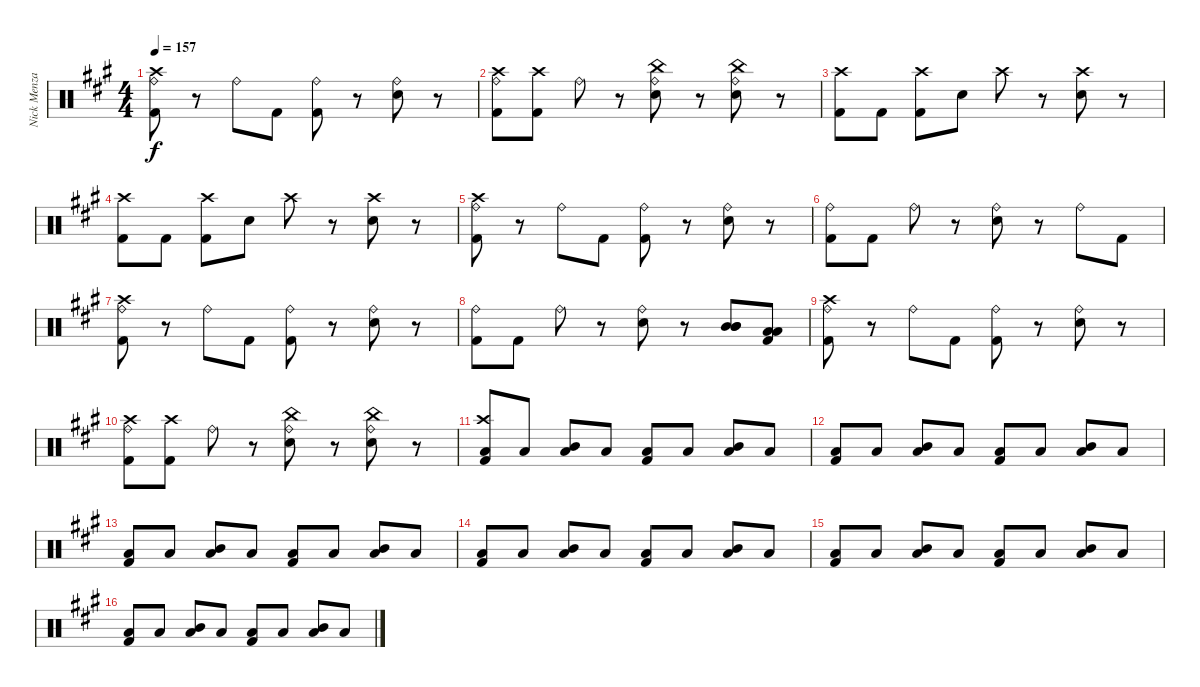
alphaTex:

\track ("Nick Menza" "Nick Menza") {instrument percussion}
\staff {score}
\articulation defaults
\ts (4 4)
\tempo 157
\clef neutral
\ks a
("Ride (bell)" "Kick (hit) 2" "Crash high (hit)").8{dy f} r.8 "Ride (bell)".8 "Kick (hit) 2".8 ("Ride (bell)" "Kick (hit) 2").8 r.8 ("Ride (bell)" "Snare (hit) 2").8 r.8 |
("Ride (bell)" "Kick (hit) 2" "Crash high (hit)").8 ("Kick (hit) 2" "Crash high (hit)").8 "Ride (bell)".8 r.8 ("Ride (bell)" "Snare (hit) 2" "China (hit)").8 r.8 ("Ride (bell)" "Snare (hit) 2" "China (hit)").8 r.8 |
("Crash high (hit)" "Kick (hit) 2").8 "Kick (hit) 2".8 ("Crash high (hit)" "Kick (hit) 2").8 "Snare (hit) 2".8 "Crash high (hit)".8 r.8 ("Crash high (hit)" "Snare (hit) 2").8 r.8 |
("Crash high (hit)" "Kick (hit) 2").8 "Kick (hit) 2".8 ("Crash high (hit)" "Kick (hit) 2").8 "Snare (hit) 2".8 "Crash high (hit)".8 r.8 ("Crash high (hit)" "Snare (hit) 2").8 r.8 |
("Ride (bell)" "Kick (hit) 2" "Crash high (hit)").8 r.8 "Ride (bell)".8 "Kick (hit) 2".8 ("Ride (bell)" "Kick (hit) 2").8 r.8 ("Ride (bell)" "Snare (hit) 2").8 r.8 |
("Ride (bell)" "Kick (hit) 2").8 "Kick (hit) 2".8 "Ride (bell)".8 r.8 ("Ride (bell)" "Snare (hit) 2").8 r.8 "Ride (bell)".8 "Kick (hit) 2".8 |
("Ride (bell)" "Kick (hit) 2" "Crash high (hit)").8 r.8 "Ride (bell)".8 "Kick (hit) 2".8 ("Ride (bell)" "Kick (hit) 2").8 r.8 ("Ride (bell)" "Snare (hit) 2").8 r.8 |
("Ride (bell)" "Kick (hit) 2").8 "Kick (hit) 2".8 "Ride (bell)".8 r.8 ("Ride (bell)" "Snare (hit) 2").8 r.8 ("Mid Tom (hit)" "Mid Tom (hit)" "Mid Tom (hit)").8 ("Low Tom (hit)" "Low Tom (hit)" "Kick (hit) 2").8 |
("Ride (bell)" "Kick (hit) 2" "Crash high (hit)").8 r.8 "Ride (bell)".8 "Kick (hit) 2".8 ("Ride (bell)" "Kick (hit) 2").8 r.8 ("Ride (bell)" "Snare (hit) 2").8 r.8 |
("Ride (bell)" "Kick (hit) 2" "Crash high (hit)").8 ("Kick (hit) 2" "Crash high (hit)").8 "Ride (bell)".8 r.8 ("Ride (bell)" "Snare (hit) 2" "China (hit)").8 r.8 ("Ride (bell)" "Snare (hit) 2" "China (hit)").8 r.8 |
("Crash high (hit)" "Kick (hit) 2" "Low Floor Tom (hit)").8 "Low Floor Tom (hit)".8 ("Mid Tom (hit)" "Low Floor Tom (hit)").8 "Low Floor Tom (hit)".8 ("Kick (hit) 2" "Low Floor Tom (hit)").8 "Low Floor Tom (hit)".8 ("Mid Tom (hit)" "Low Floor Tom (hit)").8 "Low Floor Tom (hit)".8 |
("Kick (hit) 2" "Low Floor Tom (hit)").8 "Low Floor Tom (hit)".8 ("Mid Tom (hit)" "Low Floor Tom (hit)").8 "Low Floor Tom (hit)".8 ("Kick (hit) 2" "Low Floor Tom (hit)").8 "Low Floor Tom (hit)".8 ("Mid Tom (hit)" "Low Floor Tom (hit)").8 "Low Floor Tom (hit)".8 |
("Kick (hit) 2" "Low Floor Tom (hit)").8 "Low Floor Tom (hit)".8 ("Mid Tom (hit)" "Low Floor Tom (hit)").8 "Low Floor Tom (hit)".8 ("Kick (hit) 2" "Low Floor Tom (hit)").8 "Low Floor Tom (hit)".8 ("Mid Tom (hit)" "Low Floor Tom (hit)").8 "Low Floor Tom (hit)".8 |
("Kick (hit) 2" "Low Floor Tom (hit)").8 "Low Floor Tom (hit)".8 ("Mid Tom (hit)" "Low Floor Tom (hit)").8 "Low Floor Tom (hit)".8 ("Kick (hit) 2" "Low Floor Tom (hit)").8 "Low Floor Tom (hit)".8 ("Mid Tom (hit)" "Low Floor Tom (hit)").8 "Low Floor Tom (hit)".8 |
("Kick (hit) 2" "Low Floor Tom (hit)").8 "Low Floor Tom (hit)".8 ("Mid Tom (hit)" "Low Floor Tom (hit)").8 "Low Floor Tom (hit)".8 ("Kick (hit) 2" "Low Floor Tom (hit)").8 "Low Floor Tom (hit)".8 ("Mid Tom (hit)" "Low Floor Tom (hit)").8 "Low Floor Tom (hit)".8 |
("Kick (hit) 2" "Low Floor Tom (hit)").8 "Low Floor Tom (hit)".8 ("Mid Tom (hit)" "Low Floor Tom (hit)").8 "Low Floor Tom (hit)".8 ("Kick (hit) 2" "Low Floor Tom (hit)").8 "Low Floor Tom (hit)".8 ("Mid Tom (hit)" "Low Floor Tom (hit)").8 "Low Floor Tom (hit)".8
